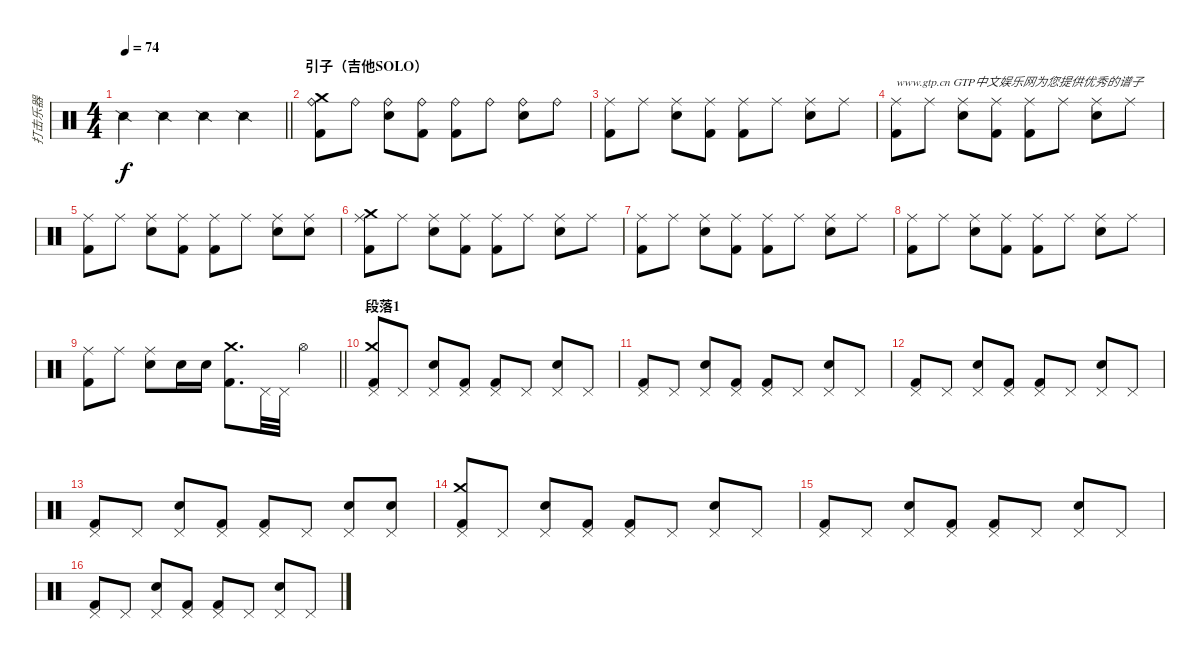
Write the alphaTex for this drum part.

\track ("打击乐器" "打击乐器") {instrument percussion}
\staff {score}
\articulation defaults
\ts (4 4)
\section ("" "")
\tempo 74
\clef neutral
\barLineRight lightlight
\ks c "Snare (side stick) 2".4{dy f} "Snare (side stick) 2".4 "Snare (side stick) 2".4 "Snare (side stick) 2".4
|
\section ("" "引子（吉他SOLO）")
("Ride (bell)" "Kick (hit) 2" "Crash medium (hit)").8 "Ride (bell)".8 ("Ride (bell)" "Electric Snare (hit)").8 ("Ride (bell)" "Kick (hit) 2").8 ("Ride (bell)" "Kick (hit) 2").8 "Ride (bell)".8 ("Ride (bell)" "Electric Snare (hit)").8 "Ride (bell)".8 |
("Ride (middle)" "Kick (hit) 2").8 "Ride (middle)".8 ("Ride (middle)" "Electric Snare (hit)").8 ("Ride (middle)" "Kick (hit) 2").8 ("Ride (middle)" "Kick (hit) 2").8 "Ride (middle)".8 ("Ride (middle)" "Electric Snare (hit)").8 "Ride (middle)".8 |
("Ride (middle)" "Kick (hit) 2").8{txt "www.gtp.cn GTP中文娱乐网为您提供优秀的谱子"} "Ride (middle)".8 ("Ride (middle)" "Electric Snare (hit)").8 ("Ride (middle)" "Kick (hit) 2").8 ("Ride (middle)" "Kick (hit) 2").8 "Ride (middle)".8 ("Ride (middle)" "Electric Snare (hit)").8 "Ride (middle)".8 |
("Ride (middle)" "Kick (hit) 2").8 "Ride (middle)".8 ("Ride (middle)" "Electric Snare (hit)").8 ("Ride (middle)" "Kick (hit) 2").8 ("Ride (middle)" "Kick (hit) 2").8 "Ride (middle)".8 ("Ride (middle)" "Electric Snare (hit)").8 ("Ride (middle)" "Electric Snare (hit)").8 |
("Ride (middle)" "Kick (hit) 2" "Crash medium (hit)").8 "Ride (middle)".8 ("Ride (middle)" "Electric Snare (hit)").8 ("Ride (middle)" "Kick (hit) 2").8 ("Ride (middle)" "Kick (hit) 2").8 "Ride (middle)".8 ("Ride (middle)" "Electric Snare (hit)").8 "Ride (middle)".8 |
("Ride (middle)" "Kick (hit) 2").8 "Ride (middle)".8 ("Ride (middle)" "Electric Snare (hit)").8 ("Ride (middle)" "Kick (hit) 2").8 ("Ride (middle)" "Kick (hit) 2").8 "Ride (middle)".8 ("Ride (middle)" "Electric Snare (hit)").8 "Ride (middle)".8 |
("Ride (middle)" "Kick (hit) 2").8 "Ride (middle)".8 ("Ride (middle)" "Electric Snare (hit)").8 ("Ride (middle)" "Kick (hit) 2").8 ("Ride (middle)" "Kick (hit) 2").8 "Ride (middle)".8 ("Ride (middle)" "Electric Snare (hit)").8 "Ride (middle)".8 |
\barLineRight lightlight
("Ride (middle)" "Kick (hit) 2").8 "Ride (middle)".8 ("Ride (middle)" "Electric Snare (hit)").8 "Electric Snare (hit)".16 "Electric Snare (hit)".16 ("Kick (hit) 2" "Crash medium (hit)").8{d} "Pedal Hi-Hat (hit)".32 "Pedal Hi-Hat (hit)".32 "Hi-Hat (open)".4 |
\section ("" "段落1")
("Pedal Hi-Hat (hit)" "Kick (hit) 2" "Crash medium (hit)").8 "Pedal Hi-Hat (hit)".8 ("Pedal Hi-Hat (hit)" "Electric Snare (hit)").8 ("Pedal Hi-Hat (hit)" "Kick (hit) 2").8 ("Pedal Hi-Hat (hit)" "Kick (hit) 2").8 "Pedal Hi-Hat (hit)".8 ("Pedal Hi-Hat (hit)" "Electric Snare (hit)").8 "Pedal Hi-Hat (hit)".8 |
("Pedal Hi-Hat (hit)" "Kick (hit) 2").8 "Pedal Hi-Hat (hit)".8 ("Pedal Hi-Hat (hit)" "Electric Snare (hit)").8 ("Pedal Hi-Hat (hit)" "Kick (hit) 2").8 ("Pedal Hi-Hat (hit)" "Kick (hit) 2").8 "Pedal Hi-Hat (hit)".8 ("Pedal Hi-Hat (hit)" "Electric Snare (hit)").8 "Pedal Hi-Hat (hit)".8 |
("Pedal Hi-Hat (hit)" "Kick (hit) 2").8 "Pedal Hi-Hat (hit)".8 ("Pedal Hi-Hat (hit)" "Electric Snare (hit)").8 ("Pedal Hi-Hat (hit)" "Kick (hit) 2").8 ("Pedal Hi-Hat (hit)" "Kick (hit) 2").8 "Pedal Hi-Hat (hit)".8 ("Pedal Hi-Hat (hit)" "Electric Snare (hit)").8 "Pedal Hi-Hat (hit)".8 |
("Pedal Hi-Hat (hit)" "Kick (hit) 2").8 "Pedal Hi-Hat (hit)".8 ("Pedal Hi-Hat (hit)" "Electric Snare (hit)").8 ("Pedal Hi-Hat (hit)" "Kick (hit) 2").8 ("Pedal Hi-Hat (hit)" "Kick (hit) 2").8 "Pedal Hi-Hat (hit)".8 ("Pedal Hi-Hat (hit)" "Electric Snare (hit)").8 ("Pedal Hi-Hat (hit)" "Electric Snare (hit)").8 |
("Pedal Hi-Hat (hit)" "Kick (hit) 2" "Crash medium (hit)").8 "Pedal Hi-Hat (hit)".8 ("Pedal Hi-Hat (hit)" "Electric Snare (hit)").8 ("Pedal Hi-Hat (hit)" "Kick (hit) 2").8 ("Pedal Hi-Hat (hit)" "Kick (hit) 2").8 "Pedal Hi-Hat (hit)".8 ("Pedal Hi-Hat (hit)" "Electric Snare (hit)").8 "Pedal Hi-Hat (hit)".8 |
("Pedal Hi-Hat (hit)" "Kick (hit) 2").8 "Pedal Hi-Hat (hit)".8 ("Pedal Hi-Hat (hit)" "Electric Snare (hit)").8 ("Pedal Hi-Hat (hit)" "Kick (hit) 2").8 ("Pedal Hi-Hat (hit)" "Kick (hit) 2").8 "Pedal Hi-Hat (hit)".8 ("Pedal Hi-Hat (hit)" "Electric Snare (hit)").8 "Pedal Hi-Hat (hit)".8 |
("Pedal Hi-Hat (hit)" "Kick (hit) 2").8 "Pedal Hi-Hat (hit)".8 ("Pedal Hi-Hat (hit)" "Electric Snare (hit)").8 ("Pedal Hi-Hat (hit)" "Kick (hit) 2").8 ("Pedal Hi-Hat (hit)" "Kick (hit) 2").8 "Pedal Hi-Hat (hit)".8 ("Pedal Hi-Hat (hit)" "Electric Snare (hit)").8 "Pedal Hi-Hat (hit)".8
